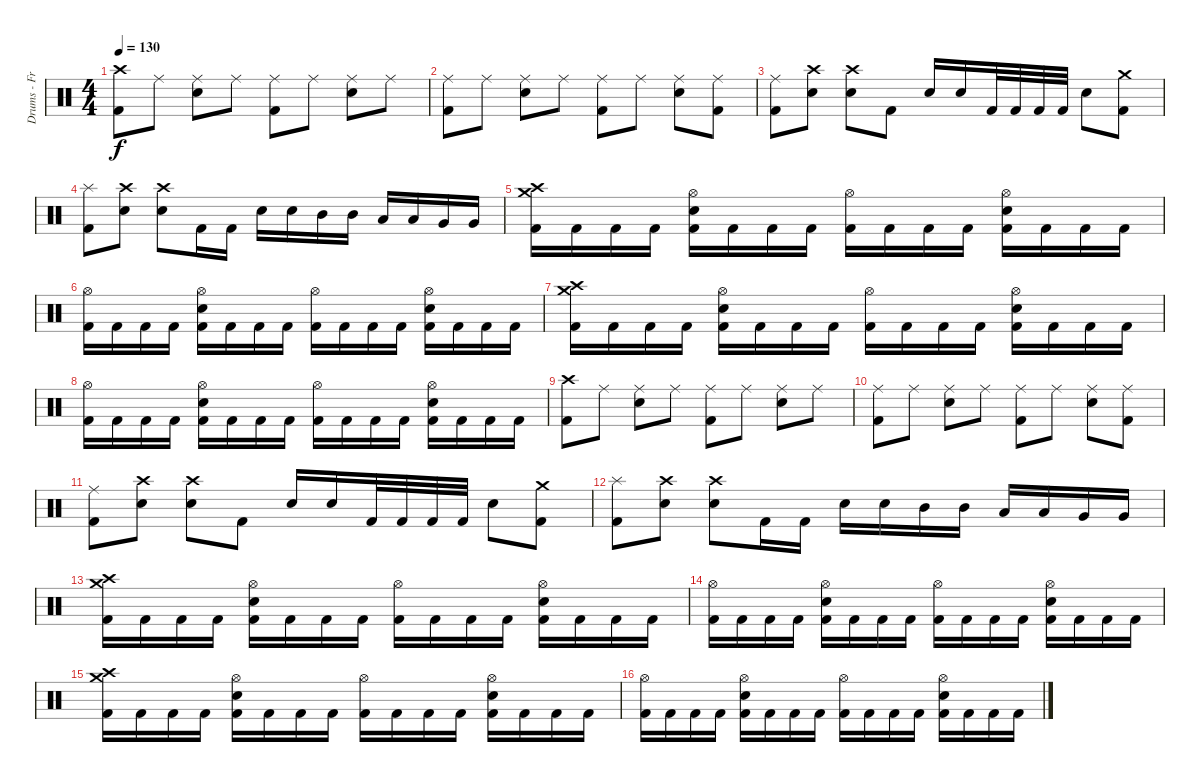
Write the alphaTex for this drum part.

\track ("Drums - Fredrik Andersson" "Drums - Fr") {instrument percussion}
\staff {score}
\articulation defaults
\ts (4 4)
\tempo 130
\clef neutral
\ks c
("Kick (hit) 2" "Crash high (hit)").8{dy f} "Ride (middle)".8 ("Snare (hit) 2" "Ride (middle)").8 "Ride (middle)".8 ("Kick (hit) 2" "Ride (middle)").8 "Ride (middle)".8 ("Snare (hit) 2" "Ride (middle)").8 "Ride (middle)".8 |
("Kick (hit) 2" "Ride (middle)").8 "Ride (middle)".8 ("Snare (hit) 2" "Ride (middle)").8 "Ride (middle)".8 ("Kick (hit) 2" "Ride (middle)").8 "Ride (middle)".8 ("Snare (hit) 2" "Ride (middle)").8 ("Kick (hit) 2" "Ride (middle)").8 |
("Ride (middle)" "Kick (hit) 2").8 ("Snare (hit) 2" "Crash high (hit)").8 ("Snare (hit) 2" "Crash high (hit)").8 "Kick (hit) 2".8 "Snare (hit) 2".16 "Snare (hit) 2".16 "Kick (hit) 2".32 "Kick (hit) 2".32 "Kick (hit) 2".32 "Kick (hit) 2".32 "Snare (hit) 2".8 ("Crash medium (hit)" "Kick (hit) 2").8 |
("Kick (hit) 2" "Splash (hit)").8 ("Snare (hit) 2" "Crash high (hit)").8 ("Snare (hit) 2" "Crash high (hit)").8 "Kick (hit) 2".16 "Kick (hit) 2".16 "Snare (hit) 2".16 "Snare (hit) 2".16 "Mid Tom (hit)".16 "Mid Tom (hit)".16 "Low Tom (hit)".16 "Low Tom (hit)".16 "Very Low Tom (hit)".16 "Very Low Tom (hit)".16 |
("Kick (hit) 2" "Crash high (hit)" "Crash medium (hit)").16 "Kick (hit) 2".16 "Kick (hit) 2".16 "Kick (hit) 2".16 ("Kick (hit) 2" "Snare (hit) 2" "Hi-Hat (open)").16 "Kick (hit) 2".16 "Kick (hit) 2".16 "Kick (hit) 2".16 ("Kick (hit) 2" "Hi-Hat (open)").16 "Kick (hit) 2".16 "Kick (hit) 2".16 "Kick (hit) 2".16 ("Kick (hit) 2" "Snare (hit) 2" "Hi-Hat (open)").16 "Kick (hit) 2".16 "Kick (hit) 2".16 "Kick (hit) 2".16 |
("Kick (hit) 2" "Hi-Hat (open)").16 "Kick (hit) 2".16 "Kick (hit) 2".16 "Kick (hit) 2".16 ("Kick (hit) 2" "Snare (hit) 2" "Hi-Hat (open)").16 "Kick (hit) 2".16 "Kick (hit) 2".16 "Kick (hit) 2".16 ("Kick (hit) 2" "Hi-Hat (open)").16 "Kick (hit) 2".16 "Kick (hit) 2".16 "Kick (hit) 2".16 ("Kick (hit) 2" "Snare (hit) 2" "Hi-Hat (open)").16 "Kick (hit) 2".16 "Kick (hit) 2".16 "Kick (hit) 2".16 |
("Kick (hit) 2" "Crash high (hit)" "Crash medium (hit)").16 "Kick (hit) 2".16 "Kick (hit) 2".16 "Kick (hit) 2".16 ("Kick (hit) 2" "Snare (hit) 2" "Hi-Hat (open)").16 "Kick (hit) 2".16 "Kick (hit) 2".16 "Kick (hit) 2".16 ("Kick (hit) 2" "Hi-Hat (open)").16 "Kick (hit) 2".16 "Kick (hit) 2".16 "Kick (hit) 2".16 ("Kick (hit) 2" "Snare (hit) 2" "Hi-Hat (open)").16 "Kick (hit) 2".16 "Kick (hit) 2".16 "Kick (hit) 2".16 |
("Kick (hit) 2" "Hi-Hat (open)").16 "Kick (hit) 2".16 "Kick (hit) 2".16 "Kick (hit) 2".16 ("Kick (hit) 2" "Snare (hit) 2" "Hi-Hat (open)").16 "Kick (hit) 2".16 "Kick (hit) 2".16 "Kick (hit) 2".16 ("Kick (hit) 2" "Hi-Hat (open)").16 "Kick (hit) 2".16 "Kick (hit) 2".16 "Kick (hit) 2".16 ("Kick (hit) 2" "Snare (hit) 2" "Hi-Hat (open)").16 "Kick (hit) 2".16 "Kick (hit) 2".16 "Kick (hit) 2".16 |
("Kick (hit) 2" "Crash high (hit)").8 "Ride (middle)".8 ("Snare (hit) 2" "Ride (middle)").8 "Ride (middle)".8 ("Kick (hit) 2" "Ride (middle)").8 "Ride (middle)".8 ("Snare (hit) 2" "Ride (middle)").8 "Ride (middle)".8 |
("Kick (hit) 2" "Ride (middle)").8 "Ride (middle)".8 ("Snare (hit) 2" "Ride (middle)").8 "Ride (middle)".8 ("Kick (hit) 2" "Ride (middle)").8 "Ride (middle)".8 ("Snare (hit) 2" "Ride (middle)").8 ("Kick (hit) 2" "Ride (middle)").8 |
("Ride (middle)" "Kick (hit) 2").8 ("Snare (hit) 2" "Crash high (hit)").8 ("Snare (hit) 2" "Crash high (hit)").8 "Kick (hit) 2".8 "Snare (hit) 2".16 "Snare (hit) 2".16 "Kick (hit) 2".32 "Kick (hit) 2".32 "Kick (hit) 2".32 "Kick (hit) 2".32 "Snare (hit) 2".8 ("Crash medium (hit)" "Kick (hit) 2").8 |
("Kick (hit) 2" "Splash (hit)").8 ("Snare (hit) 2" "Crash high (hit)").8 ("Snare (hit) 2" "Crash high (hit)").8 "Kick (hit) 2".16 "Kick (hit) 2".16 "Snare (hit) 2".16 "Snare (hit) 2".16 "Mid Tom (hit)".16 "Mid Tom (hit)".16 "Low Tom (hit)".16 "Low Tom (hit)".16 "Very Low Tom (hit)".16 "Very Low Tom (hit)".16 |
("Kick (hit) 2" "Crash high (hit)" "Crash medium (hit)").16 "Kick (hit) 2".16 "Kick (hit) 2".16 "Kick (hit) 2".16 ("Kick (hit) 2" "Snare (hit) 2" "Hi-Hat (open)").16 "Kick (hit) 2".16 "Kick (hit) 2".16 "Kick (hit) 2".16 ("Kick (hit) 2" "Hi-Hat (open)").16 "Kick (hit) 2".16 "Kick (hit) 2".16 "Kick (hit) 2".16 ("Kick (hit) 2" "Snare (hit) 2" "Hi-Hat (open)").16 "Kick (hit) 2".16 "Kick (hit) 2".16 "Kick (hit) 2".16 |
("Kick (hit) 2" "Hi-Hat (open)").16 "Kick (hit) 2".16 "Kick (hit) 2".16 "Kick (hit) 2".16 ("Kick (hit) 2" "Snare (hit) 2" "Hi-Hat (open)").16 "Kick (hit) 2".16 "Kick (hit) 2".16 "Kick (hit) 2".16 ("Kick (hit) 2" "Hi-Hat (open)").16 "Kick (hit) 2".16 "Kick (hit) 2".16 "Kick (hit) 2".16 ("Kick (hit) 2" "Snare (hit) 2" "Hi-Hat (open)").16 "Kick (hit) 2".16 "Kick (hit) 2".16 "Kick (hit) 2".16 |
("Kick (hit) 2" "Crash high (hit)" "Crash medium (hit)").16 "Kick (hit) 2".16 "Kick (hit) 2".16 "Kick (hit) 2".16 ("Kick (hit) 2" "Snare (hit) 2" "Hi-Hat (open)").16 "Kick (hit) 2".16 "Kick (hit) 2".16 "Kick (hit) 2".16 ("Kick (hit) 2" "Hi-Hat (open)").16 "Kick (hit) 2".16 "Kick (hit) 2".16 "Kick (hit) 2".16 ("Kick (hit) 2" "Snare (hit) 2" "Hi-Hat (open)").16 "Kick (hit) 2".16 "Kick (hit) 2".16 "Kick (hit) 2".16 |
("Kick (hit) 2" "Hi-Hat (open)").16 "Kick (hit) 2".16 "Kick (hit) 2".16 "Kick (hit) 2".16 ("Kick (hit) 2" "Snare (hit) 2" "Hi-Hat (open)").16 "Kick (hit) 2".16 "Kick (hit) 2".16 "Kick (hit) 2".16 ("Kick (hit) 2" "Hi-Hat (open)").16 "Kick (hit) 2".16 "Kick (hit) 2".16 "Kick (hit) 2".16 ("Kick (hit) 2" "Snare (hit) 2" "Hi-Hat (open)").16 "Kick (hit) 2".16 "Kick (hit) 2".16 "Kick (hit) 2".16
